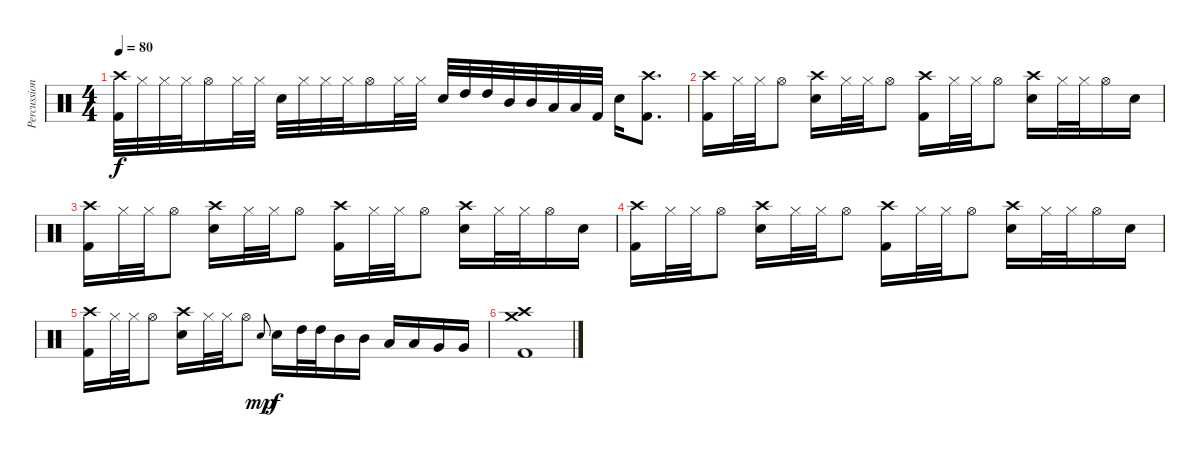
\track ("Percussion" "Percussion") {instrument percussion}
\staff {score}
\articulation defaults
\ts (4 4)
\tempo 80
\clef neutral
\ks c
("Crash high (hit)" "Kick (hit) 2").32{dy f} "Hi-Hat (closed)".32 "Hi-Hat (closed)".32 "Hi-Hat (closed)".32 "Hi-Hat (open)".16 "Hi-Hat (closed)".32 "Hi-Hat (closed)".32 "Snare (hit) 2".32 "Hi-Hat (closed)".32 "Hi-Hat (closed)".32 "Hi-Hat (closed)".32 "Hi-Hat (open)".16 "Hi-Hat (closed)".32 "Hi-Hat (closed)".32 "Snare (hit) 2".32 "High Tom (hit)".32 "High Tom (hit)".32 "Mid Tom (hit)".32 "Mid Tom (hit)".32 "Low Tom (hit)".32 "Low Tom (hit)".32 "Kick (hit) 2".32 "Snare (hit) 2".16 ("Crash high (hit)" "Kick (hit) 2").8{d} |
("Crash high (hit)" "Kick (hit) 2").16 "Hi-Hat (closed)".32 "Hi-Hat (closed)".32 "Hi-Hat (open)".8 ("Crash high (hit)" "Snare (hit) 2").16 "Hi-Hat (closed)".32 "Hi-Hat (closed)".32 "Hi-Hat (open)".8 ("Crash high (hit)" "Kick (hit) 2").16 "Hi-Hat (closed)".32 "Hi-Hat (closed)".32 "Hi-Hat (open)".8 ("Crash high (hit)" "Snare (hit) 2").16 "Hi-Hat (closed)".32 "Hi-Hat (closed)".32 "Hi-Hat (open)".16 "Snare (hit) 2".16 |
("Crash high (hit)" "Kick (hit) 2").16 "Hi-Hat (closed)".32 "Hi-Hat (closed)".32 "Hi-Hat (open)".8 ("Crash high (hit)" "Snare (hit) 2").16 "Hi-Hat (closed)".32 "Hi-Hat (closed)".32 "Hi-Hat (open)".8 ("Crash high (hit)" "Kick (hit) 2").16 "Hi-Hat (closed)".32 "Hi-Hat (closed)".32 "Hi-Hat (open)".8 ("Crash high (hit)" "Snare (hit) 2").16 "Hi-Hat (closed)".32 "Hi-Hat (closed)".32 "Hi-Hat (open)".16 "Snare (hit) 2".16 |
("Crash high (hit)" "Kick (hit) 2").16 "Hi-Hat (closed)".32 "Hi-Hat (closed)".32 "Hi-Hat (open)".8 ("Crash high (hit)" "Snare (hit) 2").16 "Hi-Hat (closed)".32 "Hi-Hat (closed)".32 "Hi-Hat (open)".8 ("Crash high (hit)" "Kick (hit) 2").16 "Hi-Hat (closed)".32 "Hi-Hat (closed)".32 "Hi-Hat (open)".8 ("Crash high (hit)" "Snare (hit) 2").16 "Hi-Hat (closed)".32 "Hi-Hat (closed)".32 "Hi-Hat (open)".16 "Snare (hit) 2".16 |
("Crash high (hit)" "Kick (hit) 2").16 "Hi-Hat (closed)".32 "Hi-Hat (closed)".32 "Hi-Hat (open)".8 ("Crash high (hit)" "Snare (hit) 2").16 "Hi-Hat (closed)".32 "Hi-Hat (closed)".32 "Hi-Hat (open)".8 "Snare (hit) 2".8{gr onbeat dy mp} "Snare (hit) 2".16{dy f} "High Tom (hit)".32 "High Tom (hit)".32 "Mid Tom (hit)".16 "Mid Tom (hit)".16 "Low Tom (hit)".16 "Low Tom (hit)".16 "Very Low Tom (hit)".16 "Very Low Tom (hit)".16 |
("Crash high (hit)" "Crash medium (hit)" "Kick (hit) 2").1
